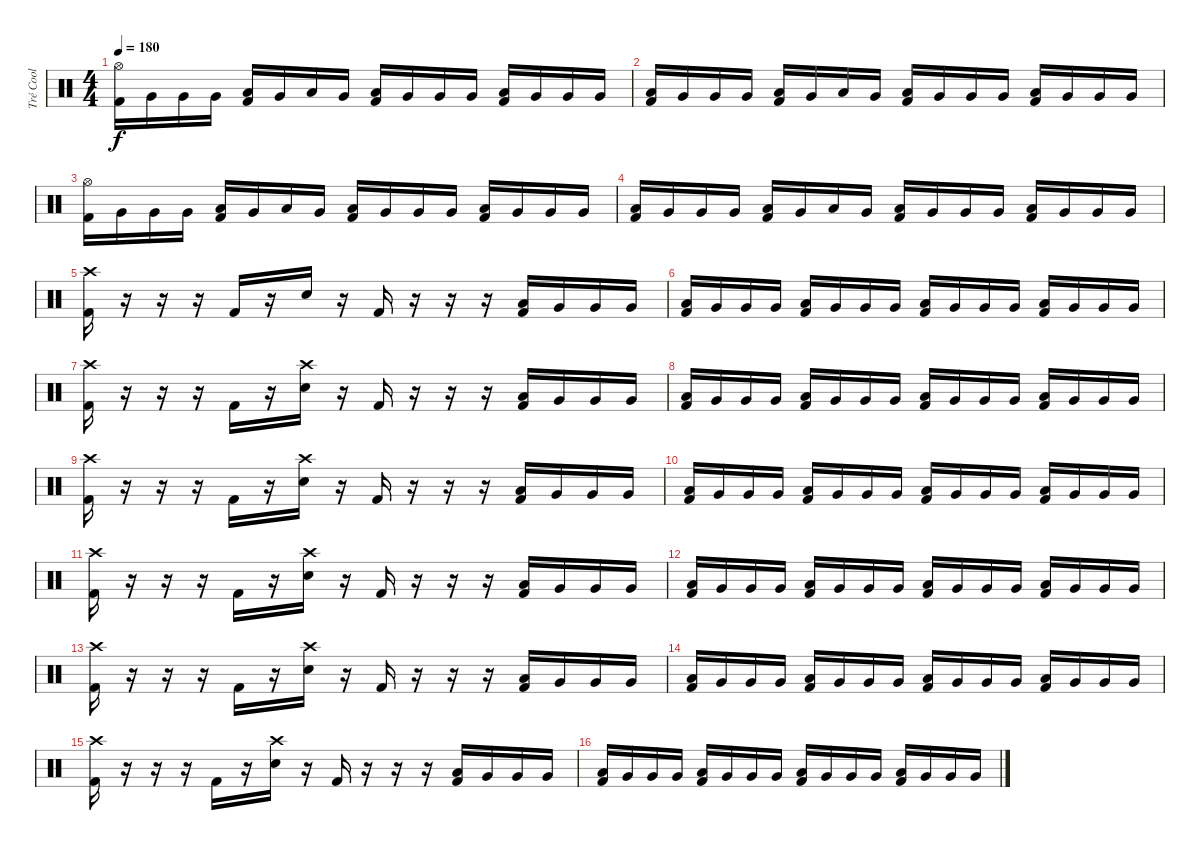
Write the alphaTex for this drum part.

\track ("Tré Cool" "Tré Cool") {instrument percussion}
\staff {score}
\articulation defaults
\ts (4 4)
\tempo 180
\clef neutral
\ks c
("Hi-Hat (open)" "Kick (hit) 2").16{dy f} "Very Low Tom (hit)".16 "Very Low Tom (hit)".16 "Very Low Tom (hit)".16 ("Low Tom (hit)" "Kick (hit) 2").16 "Very Low Tom (hit)".16 "Low Tom (hit)".16 "Very Low Tom (hit)".16 ("Low Tom (hit)" "Kick (hit) 2").16 "Very Low Tom (hit)".16 "Very Low Tom (hit)".16 "Very Low Tom (hit)".16 ("Low Tom (hit)" "Kick (hit) 2").16 "Very Low Tom (hit)".16 "Very Low Tom (hit)".16 "Very Low Tom (hit)".16 |
("Low Tom (hit)" "Kick (hit) 2").16 "Very Low Tom (hit)".16 "Very Low Tom (hit)".16 "Very Low Tom (hit)".16 ("Low Tom (hit)" "Kick (hit) 2").16 "Very Low Tom (hit)".16 "Low Tom (hit)".16 "Very Low Tom (hit)".16 ("Low Tom (hit)" "Kick (hit) 2").16 "Very Low Tom (hit)".16 "Very Low Tom (hit)".16 "Very Low Tom (hit)".16 ("Low Tom (hit)" "Kick (hit) 2").16 "Very Low Tom (hit)".16 "Very Low Tom (hit)".16 "Very Low Tom (hit)".16 |
("Hi-Hat (open)" "Kick (hit) 2").16 "Very Low Tom (hit)".16 "Very Low Tom (hit)".16 "Very Low Tom (hit)".16 ("Low Tom (hit)" "Kick (hit) 2").16 "Very Low Tom (hit)".16 "Low Tom (hit)".16 "Very Low Tom (hit)".16 ("Low Tom (hit)" "Kick (hit) 2").16 "Very Low Tom (hit)".16 "Very Low Tom (hit)".16 "Very Low Tom (hit)".16 ("Low Tom (hit)" "Kick (hit) 2").16 "Very Low Tom (hit)".16 "Very Low Tom (hit)".16 "Very Low Tom (hit)".16 |
("Low Tom (hit)" "Kick (hit) 2").16 "Very Low Tom (hit)".16 "Very Low Tom (hit)".16 "Very Low Tom (hit)".16 ("Low Tom (hit)" "Kick (hit) 2").16 "Very Low Tom (hit)".16 "Low Tom (hit)".16 "Very Low Tom (hit)".16 ("Low Tom (hit)" "Kick (hit) 2").16 "Very Low Tom (hit)".16 "Very Low Tom (hit)".16 "Very Low Tom (hit)".16 ("Low Tom (hit)" "Kick (hit) 2").16 "Very Low Tom (hit)".16 "Very Low Tom (hit)".16 "Very Low Tom (hit)".16 |
("Crash high (hit)" "Kick (hit) 2").16 r.16 r.16 r.16 "Kick (hit) 2".16 r.16 "Snare (hit) 2".16 r.16 "Kick (hit) 2".16 r.16 r.16 r.16 ("Low Tom (hit)" "Kick (hit) 2").16 "Very Low Tom (hit)".16 "Very Low Tom (hit)".16 "Very Low Tom (hit)".16 |
("Low Tom (hit)" "Kick (hit) 2").16 "Very Low Tom (hit)".16 "Very Low Tom (hit)".16 "Very Low Tom (hit)".16 ("Low Tom (hit)" "Kick (hit) 2").16 "Very Low Tom (hit)".16 "Very Low Tom (hit)".16 "Very Low Tom (hit)".16 ("Low Tom (hit)" "Kick (hit) 2").16 "Very Low Tom (hit)".16 "Very Low Tom (hit)".16 "Very Low Tom (hit)".16 ("Low Tom (hit)" "Kick (hit) 2").16 "Very Low Tom (hit)".16 "Very Low Tom (hit)".16 "Very Low Tom (hit)".16 |
("Crash high (hit)" "Kick (hit) 2").16 r.16 r.16 r.16 "Kick (hit) 2".16 r.16 ("Crash high (hit)" "Snare (hit) 2").16 r.16 "Kick (hit) 2".16 r.16 r.16 r.16 ("Low Tom (hit)" "Kick (hit) 2").16 "Very Low Tom (hit)".16 "Very Low Tom (hit)".16 "Very Low Tom (hit)".16 |
("Low Tom (hit)" "Kick (hit) 2").16 "Very Low Tom (hit)".16 "Very Low Tom (hit)".16 "Very Low Tom (hit)".16 ("Low Tom (hit)" "Kick (hit) 2").16 "Very Low Tom (hit)".16 "Very Low Tom (hit)".16 "Very Low Tom (hit)".16 ("Low Tom (hit)" "Kick (hit) 2").16 "Very Low Tom (hit)".16 "Very Low Tom (hit)".16 "Very Low Tom (hit)".16 ("Low Tom (hit)" "Kick (hit) 2").16 "Very Low Tom (hit)".16 "Very Low Tom (hit)".16 "Very Low Tom (hit)".16 |
("Crash high (hit)" "Kick (hit) 2").16 r.16 r.16 r.16 "Kick (hit) 2".16 r.16 ("Crash high (hit)" "Snare (hit) 2").16 r.16 "Kick (hit) 2".16 r.16 r.16 r.16 ("Low Tom (hit)" "Kick (hit) 2").16 "Very Low Tom (hit)".16 "Very Low Tom (hit)".16 "Very Low Tom (hit)".16 |
("Low Tom (hit)" "Kick (hit) 2").16 "Very Low Tom (hit)".16 "Very Low Tom (hit)".16 "Very Low Tom (hit)".16 ("Low Tom (hit)" "Kick (hit) 2").16 "Very Low Tom (hit)".16 "Very Low Tom (hit)".16 "Very Low Tom (hit)".16 ("Low Tom (hit)" "Kick (hit) 2").16 "Very Low Tom (hit)".16 "Very Low Tom (hit)".16 "Very Low Tom (hit)".16 ("Low Tom (hit)" "Kick (hit) 2").16 "Very Low Tom (hit)".16 "Very Low Tom (hit)".16 "Very Low Tom (hit)".16 |
("Crash high (hit)" "Kick (hit) 2").16 r.16 r.16 r.16 "Kick (hit) 2".16 r.16 ("Crash high (hit)" "Snare (hit) 2").16 r.16 "Kick (hit) 2".16 r.16 r.16 r.16 ("Low Tom (hit)" "Kick (hit) 2").16 "Very Low Tom (hit)".16 "Very Low Tom (hit)".16 "Very Low Tom (hit)".16 |
("Low Tom (hit)" "Kick (hit) 2").16 "Very Low Tom (hit)".16 "Very Low Tom (hit)".16 "Very Low Tom (hit)".16 ("Low Tom (hit)" "Kick (hit) 2").16 "Very Low Tom (hit)".16 "Very Low Tom (hit)".16 "Very Low Tom (hit)".16 ("Low Tom (hit)" "Kick (hit) 2").16 "Very Low Tom (hit)".16 "Very Low Tom (hit)".16 "Very Low Tom (hit)".16 ("Low Tom (hit)" "Kick (hit) 2").16 "Very Low Tom (hit)".16 "Very Low Tom (hit)".16 "Very Low Tom (hit)".16 |
("Crash high (hit)" "Kick (hit) 2").16 r.16 r.16 r.16 "Kick (hit) 2".16 r.16 ("Crash high (hit)" "Snare (hit) 2").16 r.16 "Kick (hit) 2".16 r.16 r.16 r.16 ("Low Tom (hit)" "Kick (hit) 2").16 "Very Low Tom (hit)".16 "Very Low Tom (hit)".16 "Very Low Tom (hit)".16 |
("Low Tom (hit)" "Kick (hit) 2").16 "Very Low Tom (hit)".16 "Very Low Tom (hit)".16 "Very Low Tom (hit)".16 ("Low Tom (hit)" "Kick (hit) 2").16 "Very Low Tom (hit)".16 "Very Low Tom (hit)".16 "Very Low Tom (hit)".16 ("Low Tom (hit)" "Kick (hit) 2").16 "Very Low Tom (hit)".16 "Very Low Tom (hit)".16 "Very Low Tom (hit)".16 ("Low Tom (hit)" "Kick (hit) 2").16 "Very Low Tom (hit)".16 "Very Low Tom (hit)".16 "Very Low Tom (hit)".16 |
("Crash high (hit)" "Kick (hit) 2").16 r.16 r.16 r.16 "Kick (hit) 2".16 r.16 ("Crash high (hit)" "Snare (hit) 2").16 r.16 "Kick (hit) 2".16 r.16 r.16 r.16 ("Low Tom (hit)" "Kick (hit) 2").16 "Very Low Tom (hit)".16 "Very Low Tom (hit)".16 "Very Low Tom (hit)".16 |
("Low Tom (hit)" "Kick (hit) 2").16 "Very Low Tom (hit)".16 "Very Low Tom (hit)".16 "Very Low Tom (hit)".16 ("Low Tom (hit)" "Kick (hit) 2").16 "Very Low Tom (hit)".16 "Very Low Tom (hit)".16 "Very Low Tom (hit)".16 ("Low Tom (hit)" "Kick (hit) 2").16 "Very Low Tom (hit)".16 "Very Low Tom (hit)".16 "Very Low Tom (hit)".16 ("Low Tom (hit)" "Kick (hit) 2").16 "Very Low Tom (hit)".16 "Very Low Tom (hit)".16 "Very Low Tom (hit)".16
